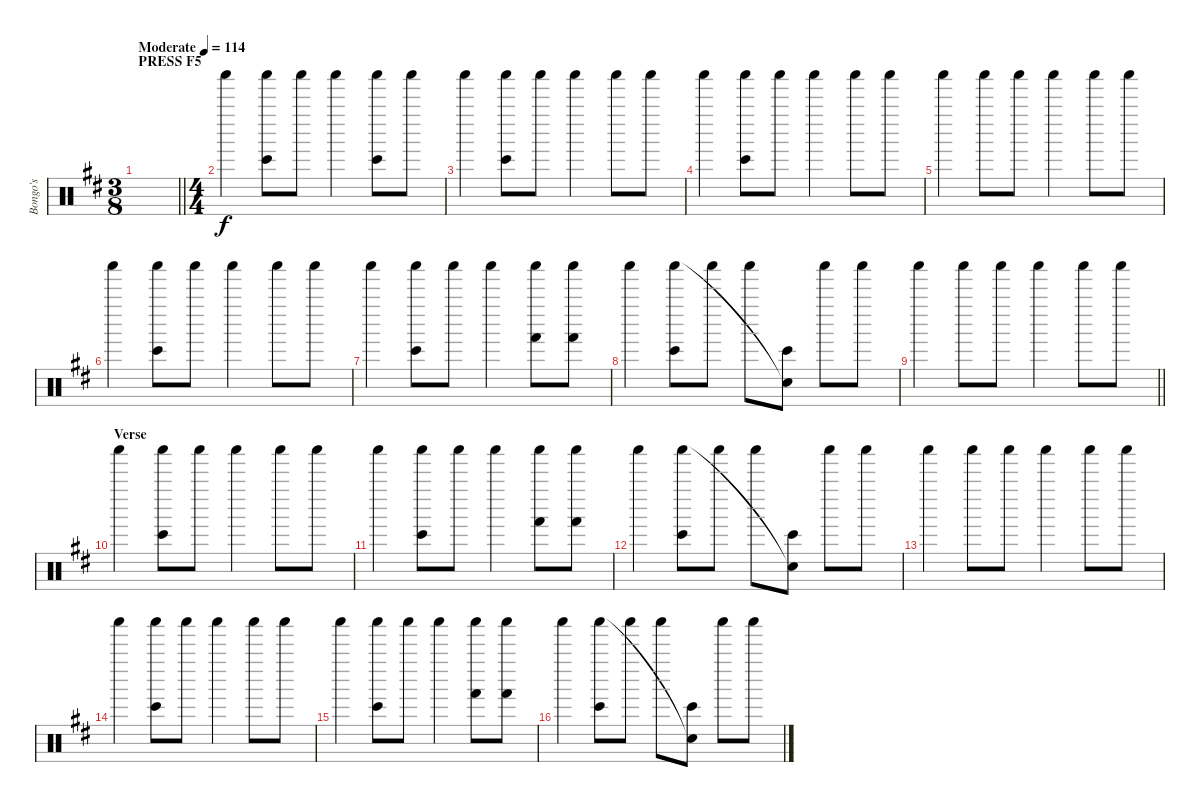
\track ("Bongo's" "Bongo's") {instrument percussion}
\staff {score}
\articulation defaults
\ts (3 8)
\section ("" "PRESS F5")
\tempo (114 "Moderate")
\clef neutral
\barLineRight lightlight
\ks bminor
|
\ts (4 4)
"Shaker (hit)".4 ("Bongo High (hit)" "Shaker (hit)").8 "Shaker (hit)".8 "Shaker (hit)".4 ("Bongo High (hit)" "Shaker (hit)").8 "Shaker (hit)".8 |
"Shaker (hit)".4 ("Bongo High (hit)" "Shaker (hit)").8 "Shaker (hit)".8 "Shaker (hit)".4 "Shaker (hit)".8 "Shaker (hit)".8 |
"Shaker (hit)".4 ("Bongo High (hit)" "Shaker (hit)").8 "Shaker (hit)".8 "Shaker (hit)".4 "Shaker (hit)".8 "Shaker (hit)".8 |
"Shaker (hit)".4 "Shaker (hit)".8 "Shaker (hit)".8 "Shaker (hit)".4 "Shaker (hit)".8 "Shaker (hit)".8 |
"Shaker (hit)".4 ("Bongo High (hit)" "Shaker (hit)").8 "Shaker (hit)".8 "Shaker (hit)".4 "Shaker (hit)".8 "Shaker (hit)".8 |
"Shaker (hit)".4 ("Bongo High (hit)" "Shaker (hit)").8 "Shaker (hit)".8 "Shaker (hit)".4 ("Hand (hit)" "Shaker (hit)").8 ("Hand (hit)" "Shaker (hit)").8 |
"Shaker (hit)".4 ("Bongo High (hit)" "Shaker (hit)").8 "Shaker (hit)".8 "Shaker (hit)".8 ("Bongo High (hit)" "Snare (hit)"{t}).8 "Shaker (hit)".8 "Shaker (hit)".8 |
\barLineRight lightlight "Shaker (hit)".4 "Shaker (hit)".8 "Shaker (hit)".8 "Shaker (hit)".4 "Shaker (hit)".8 "Shaker (hit)".8
|
\section ("" "Verse")
"Shaker (hit)".4 ("Bongo High (hit)" "Shaker (hit)").8 "Shaker (hit)".8 "Shaker (hit)".4 "Shaker (hit)".8 "Shaker (hit)".8 |
"Shaker (hit)".4 ("Bongo High (hit)" "Shaker (hit)").8 "Shaker (hit)".8 "Shaker (hit)".4 ("Hand (hit)" "Shaker (hit)").8 ("Hand (hit)" "Shaker (hit)").8 |
"Shaker (hit)".4 ("Bongo High (hit)" "Shaker (hit)").8 "Shaker (hit)".8 "Shaker (hit)".8 ("Bongo High (hit)" "Snare (hit)"{t}).8 "Shaker (hit)".8 "Shaker (hit)".8 |
"Shaker (hit)".4 "Shaker (hit)".8 "Shaker (hit)".8 "Shaker (hit)".4 "Shaker (hit)".8 "Shaker (hit)".8 |
"Shaker (hit)".4 ("Bongo High (hit)" "Shaker (hit)").8 "Shaker (hit)".8 "Shaker (hit)".4 "Shaker (hit)".8 "Shaker (hit)".8 |
"Shaker (hit)".4 ("Bongo High (hit)" "Shaker (hit)").8 "Shaker (hit)".8 "Shaker (hit)".4 ("Hand (hit)" "Shaker (hit)").8 ("Hand (hit)" "Shaker (hit)").8 |
"Shaker (hit)".4 ("Bongo High (hit)" "Shaker (hit)").8 "Shaker (hit)".8 "Shaker (hit)".8 ("Bongo High (hit)" "Snare (hit)"{t}).8 "Shaker (hit)".8 "Shaker (hit)".8
